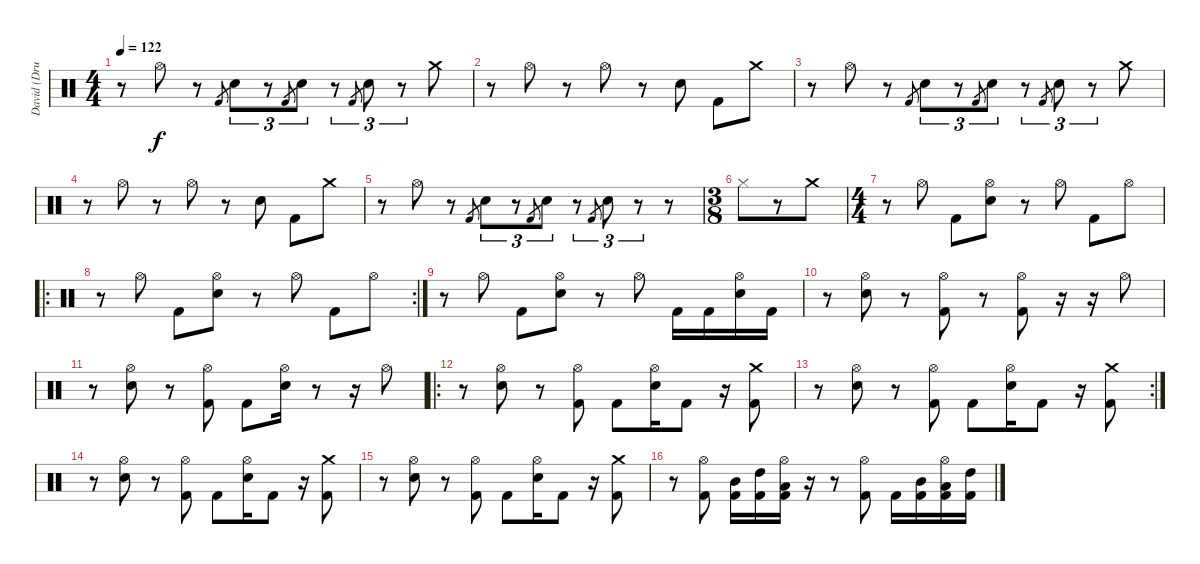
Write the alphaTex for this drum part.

\track ("David (Drums)" "David (Dru") {instrument percussion}
\staff {score}
\articulation defaults
\ts (4 4)
\tempo 122
\clef neutral
\ks c
r.8{dy f} "Hi-Hat (open)".8 r.8 "Kick (hit) 2".8{gr} "Electric Snare (hit)".8{tu (3 2)} r.8{tu (3 2)} "Kick (hit) 2".8{gr} "Electric Snare (hit)".8{tu (3 2)} r.8{tu (3 2)} "Kick (hit) 2".8{gr} "Electric Snare (hit)".8{tu (3 2)} r.8{tu (3 2)} "Crash medium (hit)".8 |
r.8 "Hi-Hat (open)".8 r.8 "Hi-Hat (open)".8 r.8 "Electric Snare (hit)".8 "Kick (hit) 2".8 "Crash medium (hit)".8 |
r.8 "Hi-Hat (open)".8 r.8 "Kick (hit) 2".8{gr} "Electric Snare (hit)".8{tu (3 2)} r.8{tu (3 2)} "Kick (hit) 2".8{gr} "Electric Snare (hit)".8{tu (3 2)} r.8{tu (3 2)} "Kick (hit) 2".8{gr} "Electric Snare (hit)".8{tu (3 2)} r.8{tu (3 2)} "Crash medium (hit)".8 |
r.8 "Hi-Hat (open)".8 r.8 "Hi-Hat (open)".8 r.8 "Electric Snare (hit)".8 "Kick (hit) 2".8 "Crash medium (hit)".8 |
r.8 "Hi-Hat (open)".8 r.8 "Kick (hit) 2".8{gr} "Electric Snare (hit)".8{tu (3 2)} r.8{tu (3 2)} "Kick (hit) 2".8{gr} "Electric Snare (hit)".8{tu (3 2)} r.8{tu (3 2)} "Kick (hit) 2".8{gr} "Electric Snare (hit)".8{tu (3 2)} r.8{tu (3 2)} r.8 |
\ts (3 8)
"Hi-Hat (closed)".8 r.8 "Crash medium (hit)".8 |
\ts (4 4)
r.8 "Hi-Hat (open)".8 "Kick (hit) 2".8 ("Hi-Hat (open)" "Electric Snare (hit)").8 r.8 "Hi-Hat (open)".8 "Kick (hit) 2".8 "Hi-Hat (open)".8 |
\ro
\rc 2
r.8 "Hi-Hat (open)".8 "Kick (hit) 2".8 ("Hi-Hat (open)" "Electric Snare (hit)").8 r.8 "Hi-Hat (open)".8 "Kick (hit) 2".8 "Hi-Hat (open)".8 |
r.8 "Hi-Hat (open)".8 "Kick (hit) 2".8 ("Hi-Hat (open)" "Electric Snare (hit)").8 r.8 "Hi-Hat (open)".8 "Kick (hit) 2".16 "Kick (hit) 2".16 ("Hi-Hat (open)" "Electric Snare (hit)").16 "Kick (hit) 2".16 |
r.8 ("Hi-Hat (open)" "Electric Snare (hit)").8 r.8 ("Hi-Hat (open)" "Kick (hit) 2").8 r.8 ("Hi-Hat (open)" "Kick (hit) 2").8 r.16 r.16 "Hi-Hat (open)".8 |
r.8 ("Hi-Hat (open)" "Electric Snare (hit)").8 r.8 ("Hi-Hat (open)" "Kick (hit) 2").8 "Kick (hit) 2".8 ("Hi-Hat (open)" "Electric Snare (hit)").16 r.8 r.16 "Hi-Hat (open)".8 |
\ro
r.8 ("Hi-Hat (open)" "Electric Snare (hit)").8 r.8 ("Hi-Hat (open)" "Kick (hit) 2").8 "Kick (hit) 2".8 ("Hi-Hat (open)" "Electric Snare (hit)").16 "Kick (hit) 2".8 r.16 ("Crash medium (hit)" "Kick (hit) 2").8 |
\rc 2
r.8 ("Hi-Hat (open)" "Electric Snare (hit)").8 r.8 ("Hi-Hat (open)" "Kick (hit) 2").8 "Kick (hit) 2".8 ("Hi-Hat (open)" "Electric Snare (hit)").16 "Kick (hit) 2".8 r.16 ("Crash medium (hit)" "Kick (hit) 2").8 |
r.8 ("Hi-Hat (open)" "Electric Snare (hit)").8 r.8 ("Hi-Hat (open)" "Kick (hit) 2").8 "Kick (hit) 2".8 ("Hi-Hat (open)" "Electric Snare (hit)").16 "Kick (hit) 2".8 r.16 ("Crash medium (hit)" "Kick (hit) 2").8 |
r.8 ("Hi-Hat (open)" "Electric Snare (hit)").8 r.8 ("Hi-Hat (open)" "Kick (hit) 2").8 "Kick (hit) 2".8 ("Hi-Hat (open)" "Electric Snare (hit)").16 "Kick (hit) 2".8 r.16 ("Crash medium (hit)" "Kick (hit) 2").8 |
r.8 ("Hi-Hat (open)" "Kick (hit) 2").8 ("Mid Tom (hit)" "Kick (hit) 2").16 ("High Tom (hit)" "Kick (hit) 2").16 ("Hi-Hat (open)" "Low Tom (hit)" "Kick (hit) 2").16 r.16 r.8 ("Hi-Hat (open)" "Kick (hit) 2").8 "Kick (hit) 2".16 ("Mid Tom (hit)" "Kick (hit) 2").16 ("Hi-Hat (open)" "Low Tom (hit)" "Kick (hit) 2").16 ("High Tom (hit)" "Kick (hit) 2").16
